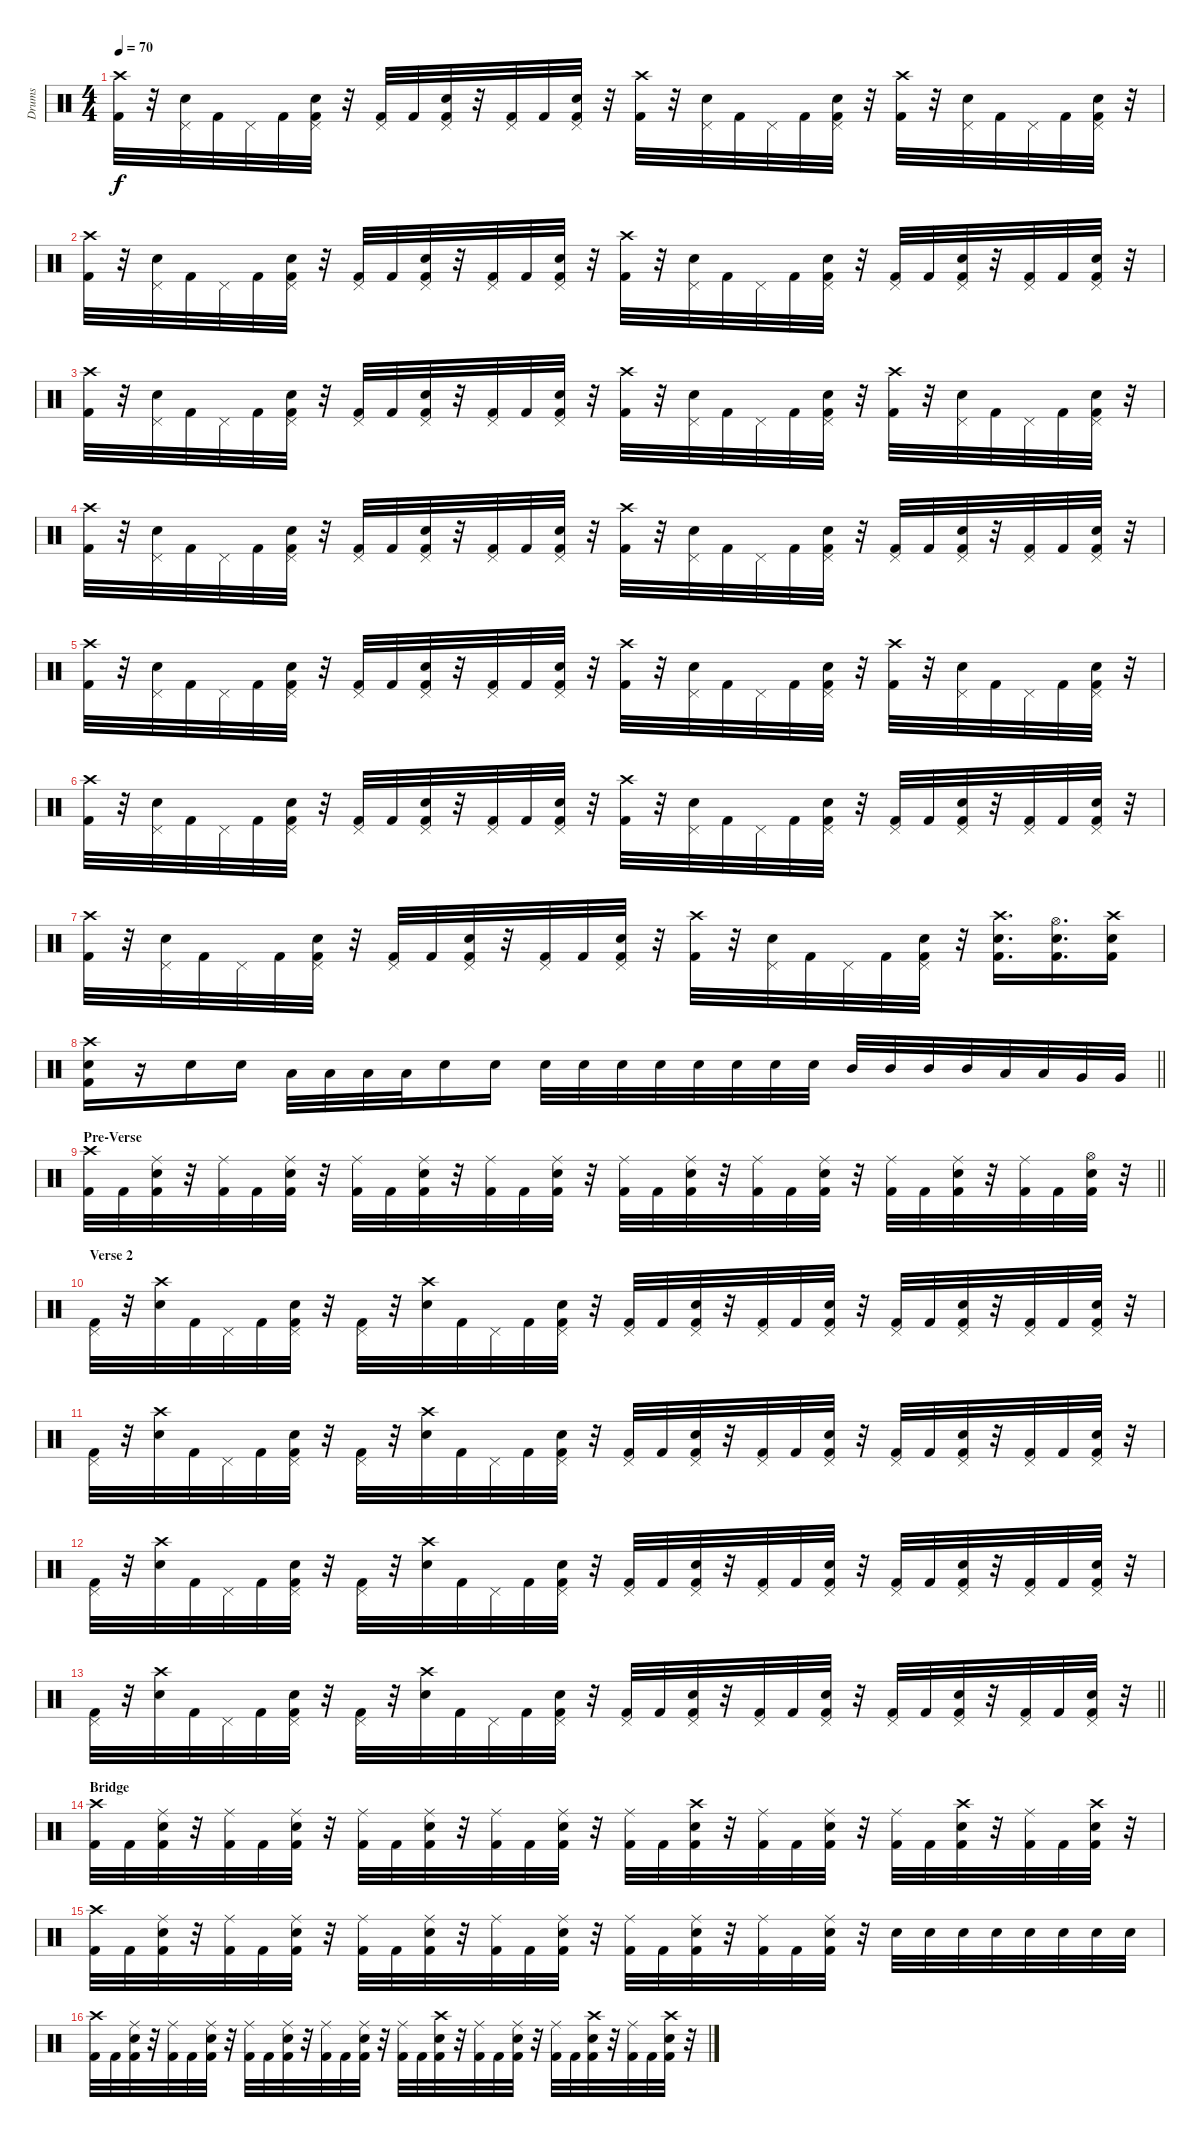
\track ("Drums" "Drums") {instrument percussion}
\staff {score}
\articulation defaults
\ts (4 4)
\tempo 70
\clef neutral
\ks c
("Crash high (hit)" "Kick (hit) 2").32{dy f} r.32 ("Pedal Hi-Hat (hit)" "Snare (hit) 2").32 "Kick (hit) 2".32 "Pedal Hi-Hat (hit)".32 "Kick (hit) 2".32 ("Pedal Hi-Hat (hit)" "Snare (hit) 2" "Kick (hit) 2").32 r.32 ("Pedal Hi-Hat (hit)" "Kick (hit) 2").32 "Kick (hit) 2".32 ("Pedal Hi-Hat (hit)" "Snare (hit) 2" "Kick (hit) 2").32 r.32 ("Pedal Hi-Hat (hit)" "Kick (hit) 2").32 "Kick (hit) 2".32 ("Pedal Hi-Hat (hit)" "Snare (hit) 2" "Kick (hit) 2").32 r.32 ("Crash high (hit)" "Kick (hit) 2").32 r.32 ("Pedal Hi-Hat (hit)" "Snare (hit) 2").32 "Kick (hit) 2".32 "Pedal Hi-Hat (hit)".32 "Kick (hit) 2".32 ("Pedal Hi-Hat (hit)" "Snare (hit) 2" "Kick (hit) 2").32 r.32 ("Crash high (hit)" "Kick (hit) 2").32 r.32 ("Pedal Hi-Hat (hit)" "Snare (hit) 2").32 "Kick (hit) 2".32 "Pedal Hi-Hat (hit)".32 "Kick (hit) 2".32 ("Pedal Hi-Hat (hit)" "Snare (hit) 2" "Kick (hit) 2").32 r.32 |
("Crash high (hit)" "Kick (hit) 2").32 r.32 ("Pedal Hi-Hat (hit)" "Snare (hit) 2").32 "Kick (hit) 2".32 "Pedal Hi-Hat (hit)".32 "Kick (hit) 2".32 ("Pedal Hi-Hat (hit)" "Snare (hit) 2" "Kick (hit) 2").32 r.32 ("Pedal Hi-Hat (hit)" "Kick (hit) 2").32 "Kick (hit) 2".32 ("Pedal Hi-Hat (hit)" "Snare (hit) 2" "Kick (hit) 2").32 r.32 ("Pedal Hi-Hat (hit)" "Kick (hit) 2").32 "Kick (hit) 2".32 ("Pedal Hi-Hat (hit)" "Snare (hit) 2" "Kick (hit) 2").32 r.32 ("Crash high (hit)" "Kick (hit) 2").32 r.32 ("Pedal Hi-Hat (hit)" "Snare (hit) 2").32 "Kick (hit) 2".32 "Pedal Hi-Hat (hit)".32 "Kick (hit) 2".32 ("Pedal Hi-Hat (hit)" "Snare (hit) 2" "Kick (hit) 2").32 r.32 ("Pedal Hi-Hat (hit)" "Kick (hit) 2").32 "Kick (hit) 2".32 ("Pedal Hi-Hat (hit)" "Snare (hit) 2" "Kick (hit) 2").32 r.32 ("Pedal Hi-Hat (hit)" "Kick (hit) 2").32 "Kick (hit) 2".32 ("Pedal Hi-Hat (hit)" "Snare (hit) 2" "Kick (hit) 2").32 r.32 |
("Crash high (hit)" "Kick (hit) 2").32 r.32 ("Pedal Hi-Hat (hit)" "Snare (hit) 2").32 "Kick (hit) 2".32 "Pedal Hi-Hat (hit)".32 "Kick (hit) 2".32 ("Pedal Hi-Hat (hit)" "Snare (hit) 2" "Kick (hit) 2").32 r.32 ("Pedal Hi-Hat (hit)" "Kick (hit) 2").32 "Kick (hit) 2".32 ("Pedal Hi-Hat (hit)" "Snare (hit) 2" "Kick (hit) 2").32 r.32 ("Pedal Hi-Hat (hit)" "Kick (hit) 2").32 "Kick (hit) 2".32 ("Pedal Hi-Hat (hit)" "Snare (hit) 2" "Kick (hit) 2").32 r.32 ("Crash high (hit)" "Kick (hit) 2").32 r.32 ("Pedal Hi-Hat (hit)" "Snare (hit) 2").32 "Kick (hit) 2".32 "Pedal Hi-Hat (hit)".32 "Kick (hit) 2".32 ("Pedal Hi-Hat (hit)" "Snare (hit) 2" "Kick (hit) 2").32 r.32 ("Crash high (hit)" "Kick (hit) 2").32 r.32 ("Pedal Hi-Hat (hit)" "Snare (hit) 2").32 "Kick (hit) 2".32 "Pedal Hi-Hat (hit)".32 "Kick (hit) 2".32 ("Pedal Hi-Hat (hit)" "Snare (hit) 2" "Kick (hit) 2").32 r.32 |
("Crash high (hit)" "Kick (hit) 2").32 r.32 ("Pedal Hi-Hat (hit)" "Snare (hit) 2").32 "Kick (hit) 2".32 "Pedal Hi-Hat (hit)".32 "Kick (hit) 2".32 ("Pedal Hi-Hat (hit)" "Snare (hit) 2" "Kick (hit) 2").32 r.32 ("Pedal Hi-Hat (hit)" "Kick (hit) 2").32 "Kick (hit) 2".32 ("Pedal Hi-Hat (hit)" "Snare (hit) 2" "Kick (hit) 2").32 r.32 ("Pedal Hi-Hat (hit)" "Kick (hit) 2").32 "Kick (hit) 2".32 ("Pedal Hi-Hat (hit)" "Snare (hit) 2" "Kick (hit) 2").32 r.32 ("Crash high (hit)" "Kick (hit) 2").32 r.32 ("Pedal Hi-Hat (hit)" "Snare (hit) 2").32 "Kick (hit) 2".32 "Pedal Hi-Hat (hit)".32 "Kick (hit) 2".32 ("Pedal Hi-Hat (hit)" "Snare (hit) 2" "Kick (hit) 2").32 r.32 ("Pedal Hi-Hat (hit)" "Kick (hit) 2").32 "Kick (hit) 2".32 ("Pedal Hi-Hat (hit)" "Snare (hit) 2" "Kick (hit) 2").32 r.32 ("Pedal Hi-Hat (hit)" "Kick (hit) 2").32 "Kick (hit) 2".32 ("Pedal Hi-Hat (hit)" "Snare (hit) 2" "Kick (hit) 2").32 r.32 |
("Crash high (hit)" "Kick (hit) 2").32 r.32 ("Pedal Hi-Hat (hit)" "Snare (hit) 2").32 "Kick (hit) 2".32 "Pedal Hi-Hat (hit)".32 "Kick (hit) 2".32 ("Pedal Hi-Hat (hit)" "Snare (hit) 2" "Kick (hit) 2").32 r.32 ("Pedal Hi-Hat (hit)" "Kick (hit) 2").32 "Kick (hit) 2".32 ("Pedal Hi-Hat (hit)" "Snare (hit) 2" "Kick (hit) 2").32 r.32 ("Pedal Hi-Hat (hit)" "Kick (hit) 2").32 "Kick (hit) 2".32 ("Pedal Hi-Hat (hit)" "Snare (hit) 2" "Kick (hit) 2").32 r.32 ("Crash high (hit)" "Kick (hit) 2").32 r.32 ("Pedal Hi-Hat (hit)" "Snare (hit) 2").32 "Kick (hit) 2".32 "Pedal Hi-Hat (hit)".32 "Kick (hit) 2".32 ("Pedal Hi-Hat (hit)" "Snare (hit) 2" "Kick (hit) 2").32 r.32 ("Crash high (hit)" "Kick (hit) 2").32 r.32 ("Pedal Hi-Hat (hit)" "Snare (hit) 2").32 "Kick (hit) 2".32 "Pedal Hi-Hat (hit)".32 "Kick (hit) 2".32 ("Pedal Hi-Hat (hit)" "Snare (hit) 2" "Kick (hit) 2").32 r.32 |
("Crash high (hit)" "Kick (hit) 2").32 r.32 ("Pedal Hi-Hat (hit)" "Snare (hit) 2").32 "Kick (hit) 2".32 "Pedal Hi-Hat (hit)".32 "Kick (hit) 2".32 ("Pedal Hi-Hat (hit)" "Snare (hit) 2" "Kick (hit) 2").32 r.32 ("Pedal Hi-Hat (hit)" "Kick (hit) 2").32 "Kick (hit) 2".32 ("Pedal Hi-Hat (hit)" "Snare (hit) 2" "Kick (hit) 2").32 r.32 ("Pedal Hi-Hat (hit)" "Kick (hit) 2").32 "Kick (hit) 2".32 ("Pedal Hi-Hat (hit)" "Snare (hit) 2" "Kick (hit) 2").32 r.32 ("Crash high (hit)" "Kick (hit) 2").32 r.32 ("Pedal Hi-Hat (hit)" "Snare (hit) 2").32 "Kick (hit) 2".32 "Pedal Hi-Hat (hit)".32 "Kick (hit) 2".32 ("Pedal Hi-Hat (hit)" "Snare (hit) 2" "Kick (hit) 2").32 r.32 ("Pedal Hi-Hat (hit)" "Kick (hit) 2").32 "Kick (hit) 2".32 ("Pedal Hi-Hat (hit)" "Snare (hit) 2" "Kick (hit) 2").32 r.32 ("Pedal Hi-Hat (hit)" "Kick (hit) 2").32 "Kick (hit) 2".32 ("Pedal Hi-Hat (hit)" "Snare (hit) 2" "Kick (hit) 2").32 r.32 |
("Crash high (hit)" "Kick (hit) 2").32 r.32 ("Pedal Hi-Hat (hit)" "Snare (hit) 2").32 "Kick (hit) 2".32 "Pedal Hi-Hat (hit)".32 "Kick (hit) 2".32 ("Pedal Hi-Hat (hit)" "Snare (hit) 2" "Kick (hit) 2").32 r.32 ("Pedal Hi-Hat (hit)" "Kick (hit) 2").32 "Kick (hit) 2".32 ("Pedal Hi-Hat (hit)" "Snare (hit) 2" "Kick (hit) 2").32 r.32 ("Pedal Hi-Hat (hit)" "Kick (hit) 2").32 "Kick (hit) 2".32 ("Pedal Hi-Hat (hit)" "Snare (hit) 2" "Kick (hit) 2").32 r.32 ("Crash high (hit)" "Kick (hit) 2").32 r.32 ("Pedal Hi-Hat (hit)" "Snare (hit) 2").32 "Kick (hit) 2".32 "Pedal Hi-Hat (hit)".32 "Kick (hit) 2".32 ("Pedal Hi-Hat (hit)" "Snare (hit) 2" "Kick (hit) 2").32 r.32 ("Crash high (hit)" "Snare (hit) 2" "Kick (hit) 2").16{d} ("Hi-Hat (open)" "Snare (hit) 2" "Kick (hit) 2").16{d} ("Crash high (hit)" "Snare (hit) 2" "Kick (hit) 2").16 |
\barLineRight lightlight
("Crash high (hit)" "Snare (hit) 2" "Kick (hit) 2").16 r.16 "Snare (hit) 2".16 "Snare (hit) 2".16 "Low Tom (hit)".32 "Low Tom (hit)".32 "Low Tom (hit)".32 "Low Tom (hit)".32 "Snare (hit) 2".16 "Snare (hit) 2".16 "Snare (hit) 2".32 "Snare (hit) 2".32 "Snare (hit) 2".32 "Snare (hit) 2".32 "Snare (hit) 2".32 "Snare (hit) 2".32 "Snare (hit) 2".32 "Snare (hit) 2".32 "Mid Tom (hit)".32 "Mid Tom (hit)".32 "Mid Tom (hit)".32 "Mid Tom (hit)".32 "Low Tom (hit)".32 "Low Tom (hit)".32 "Very Low Tom (hit)".32 "Very Low Tom (hit)".32 |
\section ("" "Pre-Verse")
\barLineRight lightlight
("Crash high (hit)" "Kick (hit) 2").32 "Kick (hit) 2".32 ("Ride (middle)" "Snare (hit) 2" "Kick (hit) 2").32 r.32 ("Ride (middle)" "Kick (hit) 2").32 "Kick (hit) 2".32 ("Ride (middle)" "Snare (hit) 2" "Kick (hit) 2").32 r.32 ("Ride (middle)" "Kick (hit) 2").32 "Kick (hit) 2".32 ("Ride (middle)" "Snare (hit) 2" "Kick (hit) 2").32 r.32 ("Ride (middle)" "Kick (hit) 2").32 "Kick (hit) 2".32 ("Ride (middle)" "Snare (hit) 2" "Kick (hit) 2").32 r.32 ("Ride (middle)" "Kick (hit) 2").32 "Kick (hit) 2".32 ("Ride (middle)" "Snare (hit) 2" "Kick (hit) 2").32 r.32 ("Ride (middle)" "Kick (hit) 2").32 "Kick (hit) 2".32 ("Ride (middle)" "Snare (hit) 2" "Kick (hit) 2").32 r.32 ("Ride (middle)" "Kick (hit) 2").32 "Kick (hit) 2".32 ("Ride (middle)" "Snare (hit) 2" "Kick (hit) 2").32 r.32 ("Ride (middle)" "Kick (hit) 2").32 "Kick (hit) 2".32 ("Hi-Hat (open)" "Snare (hit) 2" "Kick (hit) 2").32 r.32 |
\section ("" "Verse 2")
("Pedal Hi-Hat (hit)" "Kick (hit) 2").32 r.32 ("Crash high (hit)" "Snare (hit) 2").32 "Kick (hit) 2".32 "Pedal Hi-Hat (hit)".32 "Kick (hit) 2".32 ("Pedal Hi-Hat (hit)" "Snare (hit) 2" "Kick (hit) 2").32 r.32 ("Pedal Hi-Hat (hit)" "Kick (hit) 2").32 r.32 ("Crash high (hit)" "Snare (hit) 2").32 "Kick (hit) 2".32 "Pedal Hi-Hat (hit)".32 "Kick (hit) 2".32 ("Pedal Hi-Hat (hit)" "Snare (hit) 2" "Kick (hit) 2").32 r.32 ("Pedal Hi-Hat (hit)" "Kick (hit) 2").32 "Kick (hit) 2".32 ("Pedal Hi-Hat (hit)" "Snare (hit) 2" "Kick (hit) 2").32 r.32 ("Pedal Hi-Hat (hit)" "Kick (hit) 2").32 "Kick (hit) 2".32 ("Pedal Hi-Hat (hit)" "Snare (hit) 2" "Kick (hit) 2").32 r.32 ("Pedal Hi-Hat (hit)" "Kick (hit) 2").32 "Kick (hit) 2".32 ("Pedal Hi-Hat (hit)" "Snare (hit) 2" "Kick (hit) 2").32 r.32 ("Pedal Hi-Hat (hit)" "Kick (hit) 2").32 "Kick (hit) 2".32 ("Pedal Hi-Hat (hit)" "Snare (hit) 2" "Kick (hit) 2").32 r.32 |
("Pedal Hi-Hat (hit)" "Kick (hit) 2").32 r.32 ("Crash high (hit)" "Snare (hit) 2").32 "Kick (hit) 2".32 "Pedal Hi-Hat (hit)".32 "Kick (hit) 2".32 ("Pedal Hi-Hat (hit)" "Snare (hit) 2" "Kick (hit) 2").32 r.32 ("Pedal Hi-Hat (hit)" "Kick (hit) 2").32 r.32 ("Crash high (hit)" "Snare (hit) 2").32 "Kick (hit) 2".32 "Pedal Hi-Hat (hit)".32 "Kick (hit) 2".32 ("Pedal Hi-Hat (hit)" "Snare (hit) 2" "Kick (hit) 2").32 r.32 ("Pedal Hi-Hat (hit)" "Kick (hit) 2").32 "Kick (hit) 2".32 ("Pedal Hi-Hat (hit)" "Snare (hit) 2" "Kick (hit) 2").32 r.32 ("Pedal Hi-Hat (hit)" "Kick (hit) 2").32 "Kick (hit) 2".32 ("Pedal Hi-Hat (hit)" "Snare (hit) 2" "Kick (hit) 2").32 r.32 ("Pedal Hi-Hat (hit)" "Kick (hit) 2").32 "Kick (hit) 2".32 ("Pedal Hi-Hat (hit)" "Snare (hit) 2" "Kick (hit) 2").32 r.32 ("Pedal Hi-Hat (hit)" "Kick (hit) 2").32 "Kick (hit) 2".32 ("Pedal Hi-Hat (hit)" "Snare (hit) 2" "Kick (hit) 2").32 r.32 |
("Pedal Hi-Hat (hit)" "Kick (hit) 2").32 r.32 ("Crash high (hit)" "Snare (hit) 2").32 "Kick (hit) 2".32 "Pedal Hi-Hat (hit)".32 "Kick (hit) 2".32 ("Pedal Hi-Hat (hit)" "Snare (hit) 2" "Kick (hit) 2").32 r.32 ("Pedal Hi-Hat (hit)" "Kick (hit) 2").32 r.32 ("Crash high (hit)" "Snare (hit) 2").32 "Kick (hit) 2".32 "Pedal Hi-Hat (hit)".32 "Kick (hit) 2".32 ("Pedal Hi-Hat (hit)" "Snare (hit) 2" "Kick (hit) 2").32 r.32 ("Pedal Hi-Hat (hit)" "Kick (hit) 2").32 "Kick (hit) 2".32 ("Pedal Hi-Hat (hit)" "Snare (hit) 2" "Kick (hit) 2").32 r.32 ("Pedal Hi-Hat (hit)" "Kick (hit) 2").32 "Kick (hit) 2".32 ("Pedal Hi-Hat (hit)" "Snare (hit) 2" "Kick (hit) 2").32 r.32 ("Pedal Hi-Hat (hit)" "Kick (hit) 2").32 "Kick (hit) 2".32 ("Pedal Hi-Hat (hit)" "Snare (hit) 2" "Kick (hit) 2").32 r.32 ("Pedal Hi-Hat (hit)" "Kick (hit) 2").32 "Kick (hit) 2".32 ("Pedal Hi-Hat (hit)" "Snare (hit) 2" "Kick (hit) 2").32 r.32 |
\barLineRight lightlight
("Pedal Hi-Hat (hit)" "Kick (hit) 2").32 r.32 ("Crash high (hit)" "Snare (hit) 2").32 "Kick (hit) 2".32 "Pedal Hi-Hat (hit)".32 "Kick (hit) 2".32 ("Pedal Hi-Hat (hit)" "Snare (hit) 2" "Kick (hit) 2").32 r.32 ("Pedal Hi-Hat (hit)" "Kick (hit) 2").32 r.32 ("Crash high (hit)" "Snare (hit) 2").32 "Kick (hit) 2".32 "Pedal Hi-Hat (hit)".32 "Kick (hit) 2".32 ("Pedal Hi-Hat (hit)" "Snare (hit) 2" "Kick (hit) 2").32 r.32 ("Pedal Hi-Hat (hit)" "Kick (hit) 2").32 "Kick (hit) 2".32 ("Pedal Hi-Hat (hit)" "Snare (hit) 2" "Kick (hit) 2").32 r.32 ("Pedal Hi-Hat (hit)" "Kick (hit) 2").32 "Kick (hit) 2".32 ("Pedal Hi-Hat (hit)" "Snare (hit) 2" "Kick (hit) 2").32 r.32 ("Pedal Hi-Hat (hit)" "Kick (hit) 2").32 "Kick (hit) 2".32 ("Pedal Hi-Hat (hit)" "Snare (hit) 2" "Kick (hit) 2").32 r.32 ("Pedal Hi-Hat (hit)" "Kick (hit) 2").32 "Kick (hit) 2".32 ("Pedal Hi-Hat (hit)" "Snare (hit) 2" "Kick (hit) 2").32 r.32 |
\section ("" "Bridge")
("Crash high (hit)" "Kick (hit) 2").32 "Kick (hit) 2".32 ("Ride (middle)" "Snare (hit) 2" "Kick (hit) 2").32 r.32 ("Ride (middle)" "Kick (hit) 2").32 "Kick (hit) 2".32 ("Ride (middle)" "Snare (hit) 2" "Kick (hit) 2").32 r.32 ("Ride (middle)" "Kick (hit) 2").32 "Kick (hit) 2".32 ("Ride (middle)" "Snare (hit) 2" "Kick (hit) 2").32 r.32 ("Ride (middle)" "Kick (hit) 2").32 "Kick (hit) 2".32 ("Ride (middle)" "Snare (hit) 2" "Kick (hit) 2").32 r.32 ("Ride (middle)" "Kick (hit) 2").32 "Kick (hit) 2".32 ("Crash high (hit)" "Snare (hit) 2" "Kick (hit) 2").32 r.32 ("Ride (middle)" "Kick (hit) 2").32 "Kick (hit) 2".32 ("Ride (middle)" "Snare (hit) 2" "Kick (hit) 2").32 r.32 ("Ride (middle)" "Kick (hit) 2").32 "Kick (hit) 2".32 ("Crash high (hit)" "Snare (hit) 2" "Kick (hit) 2").32 r.32 ("Ride (middle)" "Kick (hit) 2").32 "Kick (hit) 2".32 ("Crash high (hit)" "Snare (hit) 2" "Kick (hit) 2").32 r.32 |
("Crash high (hit)" "Kick (hit) 2").32 "Kick (hit) 2".32 ("Ride (middle)" "Snare (hit) 2" "Kick (hit) 2").32 r.32 ("Ride (middle)" "Kick (hit) 2").32 "Kick (hit) 2".32 ("Ride (middle)" "Snare (hit) 2" "Kick (hit) 2").32 r.32 ("Ride (middle)" "Kick (hit) 2").32 "Kick (hit) 2".32 ("Ride (middle)" "Snare (hit) 2" "Kick (hit) 2").32 r.32 ("Ride (middle)" "Kick (hit) 2").32 "Kick (hit) 2".32 ("Ride (middle)" "Snare (hit) 2" "Kick (hit) 2").32 r.32 ("Ride (middle)" "Kick (hit) 2").32 "Kick (hit) 2".32 ("Ride (middle)" "Snare (hit) 2" "Kick (hit) 2").32 r.32 ("Ride (middle)" "Kick (hit) 2").32 "Kick (hit) 2".32 ("Ride (middle)" "Snare (hit) 2" "Kick (hit) 2").32 r.32 "Snare (hit) 2".32 "Snare (hit) 2".32 "Snare (hit) 2".32 "Snare (hit) 2".32 "Snare (hit) 2".32 "Snare (hit) 2".32 "Snare (hit) 2".32 "Snare (hit) 2".32 |
("Crash high (hit)" "Kick (hit) 2").32 "Kick (hit) 2".32 ("Ride (middle)" "Snare (hit) 2" "Kick (hit) 2").32 r.32 ("Ride (middle)" "Kick (hit) 2").32 "Kick (hit) 2".32 ("Ride (middle)" "Snare (hit) 2" "Kick (hit) 2").32 r.32 ("Ride (middle)" "Kick (hit) 2").32 "Kick (hit) 2".32 ("Ride (middle)" "Snare (hit) 2" "Kick (hit) 2").32 r.32 ("Ride (middle)" "Kick (hit) 2").32 "Kick (hit) 2".32 ("Ride (middle)" "Snare (hit) 2" "Kick (hit) 2").32 r.32 ("Ride (middle)" "Kick (hit) 2").32 "Kick (hit) 2".32 ("Crash high (hit)" "Snare (hit) 2" "Kick (hit) 2").32 r.32 ("Ride (middle)" "Kick (hit) 2").32 "Kick (hit) 2".32 ("Ride (middle)" "Snare (hit) 2" "Kick (hit) 2").32 r.32 ("Ride (middle)" "Kick (hit) 2").32 "Kick (hit) 2".32 ("Crash high (hit)" "Snare (hit) 2" "Kick (hit) 2").32 r.32 ("Ride (middle)" "Kick (hit) 2").32 "Kick (hit) 2".32 ("Crash high (hit)" "Snare (hit) 2" "Kick (hit) 2").32 r.32
